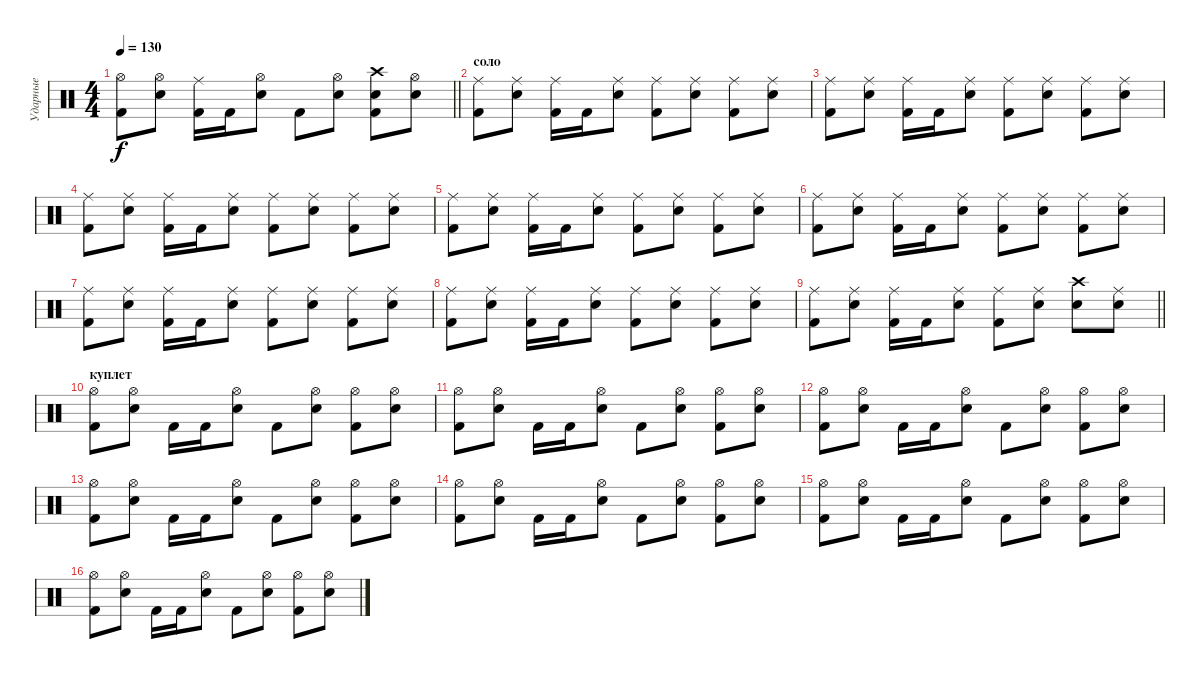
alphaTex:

\track ("Ударные" "Ударные") {instrument percussion}
\staff {score}
\articulation defaults
\ts (4 4)
\tempo 130
\clef neutral
\barLineRight lightlight
\ks c
("Kick (hit) 2" "Hi-Hat (open)").8{dy f} ("Electric Snare (hit)" "Hi-Hat (open)").8 ("Kick (hit) 2" "Ride (middle)").16 "Kick (hit) 2".16 ("Electric Snare (hit)" "Hi-Hat (open)").8 "Kick (hit) 2".8 ("Electric Snare (hit)" "Hi-Hat (open)").8 ("Kick (hit) 2" "Crash high (hit)" "Electric Snare (hit)").8 ("Electric Snare (hit)" "Hi-Hat (open)").8 |
\section ("" "соло")
("Kick (hit) 2" "Ride (middle)").8 ("Electric Snare (hit)" "Ride (middle)").8 ("Kick (hit) 2" "Ride (middle)").16 "Kick (hit) 2".16 ("Electric Snare (hit)" "Ride (middle)").8 ("Kick (hit) 2" "Ride (middle)").8 ("Electric Snare (hit)" "Ride (middle)").8 ("Kick (hit) 2" "Ride (middle)").8 ("Electric Snare (hit)" "Ride (middle)").8 |
("Kick (hit) 2" "Ride (middle)").8 ("Electric Snare (hit)" "Ride (middle)").8 ("Kick (hit) 2" "Ride (middle)").16 "Kick (hit) 2".16 ("Electric Snare (hit)" "Ride (middle)").8 ("Kick (hit) 2" "Ride (middle)").8 ("Electric Snare (hit)" "Ride (middle)").8 ("Kick (hit) 2" "Ride (middle)").8 ("Electric Snare (hit)" "Ride (middle)").8 |
("Kick (hit) 2" "Ride (middle)").8 ("Electric Snare (hit)" "Ride (middle)").8 ("Kick (hit) 2" "Ride (middle)").16 "Kick (hit) 2".16 ("Electric Snare (hit)" "Ride (middle)").8 ("Kick (hit) 2" "Ride (middle)").8 ("Electric Snare (hit)" "Ride (middle)").8 ("Kick (hit) 2" "Ride (middle)").8 ("Electric Snare (hit)" "Ride (middle)").8 |
("Kick (hit) 2" "Ride (middle)").8 ("Electric Snare (hit)" "Ride (middle)").8 ("Kick (hit) 2" "Ride (middle)").16 "Kick (hit) 2".16 ("Electric Snare (hit)" "Ride (middle)").8 ("Kick (hit) 2" "Ride (middle)").8 ("Electric Snare (hit)" "Ride (middle)").8 ("Kick (hit) 2" "Ride (middle)").8 ("Electric Snare (hit)" "Ride (middle)").8 |
("Kick (hit) 2" "Ride (middle)").8 ("Electric Snare (hit)" "Ride (middle)").8 ("Kick (hit) 2" "Ride (middle)").16 "Kick (hit) 2".16 ("Electric Snare (hit)" "Ride (middle)").8 ("Kick (hit) 2" "Ride (middle)").8 ("Electric Snare (hit)" "Ride (middle)").8 ("Kick (hit) 2" "Ride (middle)").8 ("Electric Snare (hit)" "Ride (middle)").8 |
("Kick (hit) 2" "Ride (middle)").8 ("Electric Snare (hit)" "Ride (middle)").8 ("Kick (hit) 2" "Ride (middle)").16 "Kick (hit) 2".16 ("Electric Snare (hit)" "Ride (middle)").8 ("Kick (hit) 2" "Ride (middle)").8 ("Electric Snare (hit)" "Ride (middle)").8 ("Kick (hit) 2" "Ride (middle)").8 ("Electric Snare (hit)" "Ride (middle)").8 |
("Kick (hit) 2" "Ride (middle)").8 ("Electric Snare (hit)" "Ride (middle)").8 ("Kick (hit) 2" "Ride (middle)").16 "Kick (hit) 2".16 ("Electric Snare (hit)" "Ride (middle)").8 ("Kick (hit) 2" "Ride (middle)").8 ("Electric Snare (hit)" "Ride (middle)").8 ("Kick (hit) 2" "Ride (middle)").8 ("Electric Snare (hit)" "Ride (middle)").8 |
\barLineRight lightlight
("Kick (hit) 2" "Ride (middle)").8 ("Electric Snare (hit)" "Ride (middle)").8 ("Kick (hit) 2" "Ride (middle)").16 "Kick (hit) 2".16 ("Electric Snare (hit)" "Ride (middle)").8 ("Kick (hit) 2" "Ride (middle)").8 ("Electric Snare (hit)" "Ride (middle)").8 ("Electric Snare (hit)" "Crash high (hit)").8 ("Electric Snare (hit)" "Ride (middle)").8 |
\section ("" "куплет")
("Kick (hit) 2" "Hi-Hat (open)").8 ("Electric Snare (hit)" "Hi-Hat (open)").8 "Kick (hit) 2".16 "Kick (hit) 2".16 ("Electric Snare (hit)" "Hi-Hat (open)").8 "Kick (hit) 2".8 ("Electric Snare (hit)" "Hi-Hat (open)").8 ("Kick (hit) 2" "Hi-Hat (open)").8 ("Electric Snare (hit)" "Hi-Hat (open)").8 |
("Kick (hit) 2" "Hi-Hat (open)").8 ("Electric Snare (hit)" "Hi-Hat (open)").8 "Kick (hit) 2".16 "Kick (hit) 2".16 ("Electric Snare (hit)" "Hi-Hat (open)").8 "Kick (hit) 2".8 ("Electric Snare (hit)" "Hi-Hat (open)").8 ("Kick (hit) 2" "Hi-Hat (open)").8 ("Electric Snare (hit)" "Hi-Hat (open)").8 |
("Kick (hit) 2" "Hi-Hat (open)").8 ("Electric Snare (hit)" "Hi-Hat (open)").8 "Kick (hit) 2".16 "Kick (hit) 2".16 ("Electric Snare (hit)" "Hi-Hat (open)").8 "Kick (hit) 2".8 ("Electric Snare (hit)" "Hi-Hat (open)").8 ("Kick (hit) 2" "Hi-Hat (open)").8 ("Electric Snare (hit)" "Hi-Hat (open)").8 |
("Kick (hit) 2" "Hi-Hat (open)").8 ("Electric Snare (hit)" "Hi-Hat (open)").8 "Kick (hit) 2".16 "Kick (hit) 2".16 ("Electric Snare (hit)" "Hi-Hat (open)").8 "Kick (hit) 2".8 ("Electric Snare (hit)" "Hi-Hat (open)").8 ("Kick (hit) 2" "Hi-Hat (open)").8 ("Electric Snare (hit)" "Hi-Hat (open)").8 |
("Kick (hit) 2" "Hi-Hat (open)").8 ("Electric Snare (hit)" "Hi-Hat (open)").8 "Kick (hit) 2".16 "Kick (hit) 2".16 ("Electric Snare (hit)" "Hi-Hat (open)").8 "Kick (hit) 2".8 ("Electric Snare (hit)" "Hi-Hat (open)").8 ("Kick (hit) 2" "Hi-Hat (open)").8 ("Electric Snare (hit)" "Hi-Hat (open)").8 |
("Kick (hit) 2" "Hi-Hat (open)").8 ("Electric Snare (hit)" "Hi-Hat (open)").8 "Kick (hit) 2".16 "Kick (hit) 2".16 ("Electric Snare (hit)" "Hi-Hat (open)").8 "Kick (hit) 2".8 ("Electric Snare (hit)" "Hi-Hat (open)").8 ("Kick (hit) 2" "Hi-Hat (open)").8 ("Electric Snare (hit)" "Hi-Hat (open)").8 |
("Kick (hit) 2" "Hi-Hat (open)").8 ("Electric Snare (hit)" "Hi-Hat (open)").8 "Kick (hit) 2".16 "Kick (hit) 2".16 ("Electric Snare (hit)" "Hi-Hat (open)").8 "Kick (hit) 2".8 ("Electric Snare (hit)" "Hi-Hat (open)").8 ("Kick (hit) 2" "Hi-Hat (open)").8 ("Electric Snare (hit)" "Hi-Hat (open)").8
